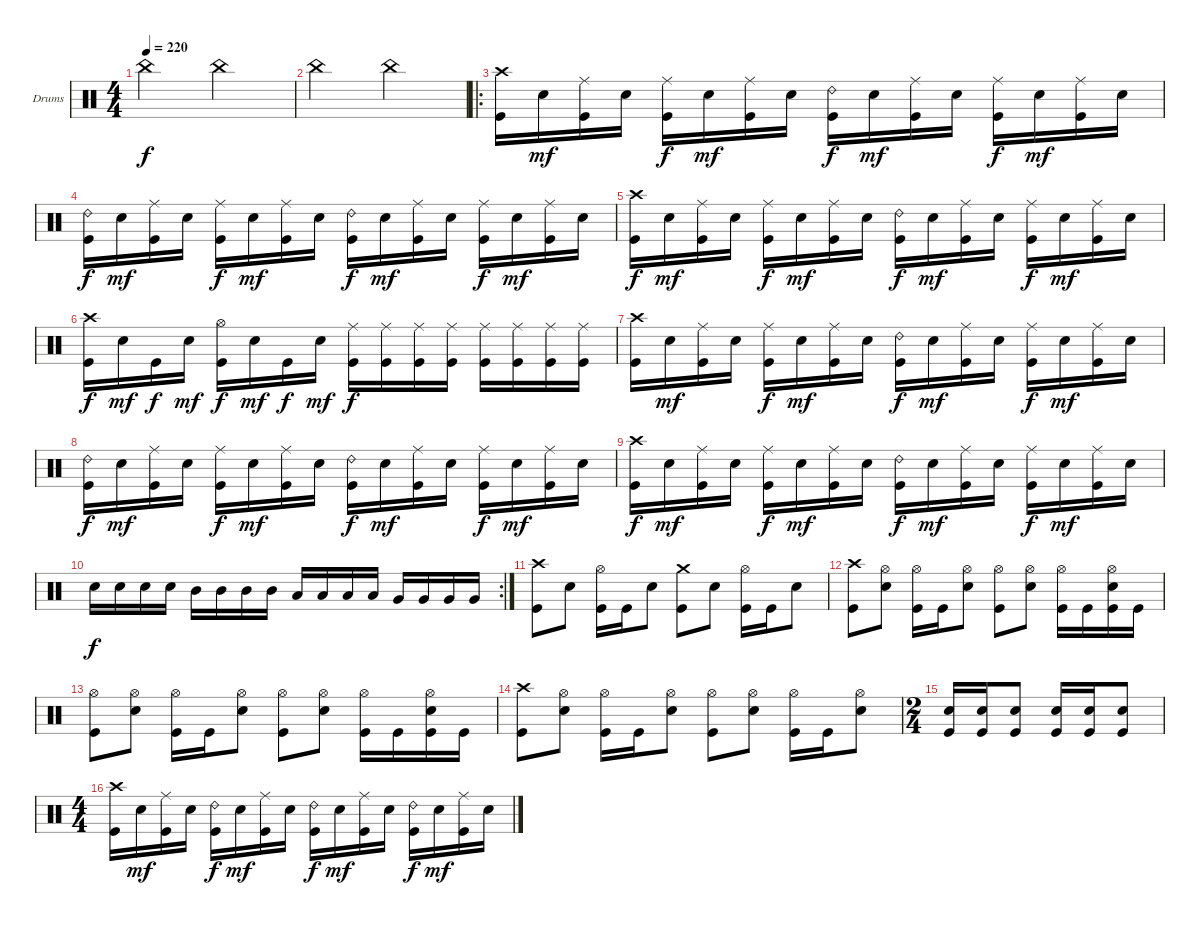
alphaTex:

\defaultSystemsLayout 4
\bracketExtendMode groupsimilarinstruments
\firstSystemTrackNameOrientation horizontal
\otherSystemsTrackNameOrientation horizontal
\track ("Drumkit" "Drums") {instrument percussion}
\staff {score}
\articulation defaults
\ts (4 4)
\tempo 220
\clef neutral
\scale
0.472222
\ks c "China (hit)".2{dy f} "China (hit)".2
|
\scale
0.263889 "China (hit)".2 "China (hit)".2 |
\ro
\scale
0.263889 ("Crash high (hit)" "Kick (hit)").16 "Snare (hit) 2".16{dy mf} ("Ride (middle)" "Kick (hit)").16 "Snare (hit) 2".16 ("Ride (middle)" "Kick (hit)").16{dy f} "Snare (hit) 2".16{dy mf} ("Ride (middle)" "Kick (hit)").16 "Snare (hit) 2".16 ("Ride (bell) 2" "Kick (hit)").16{dy f} "Snare (hit) 2".16{dy mf} ("Ride (middle)" "Kick (hit)").16 "Snare (hit) 2".16 ("Ride (middle)" "Kick (hit)").16{dy f} "Snare (hit) 2".16{dy mf} ("Ride (middle)" "Kick (hit)").16 "Snare (hit) 2".16 |
\scale
0.333333 ("Ride (bell) 2" "Kick (hit)").16{dy f} "Snare (hit) 2".16{dy mf} ("Ride (middle)" "Kick (hit)").16 "Snare (hit) 2".16 ("Ride (middle)" "Kick (hit)").16{dy f} "Snare (hit) 2".16{dy mf} ("Ride (middle)" "Kick (hit)").16 "Snare (hit) 2".16 ("Ride (bell) 2" "Kick (hit)").16{dy f} "Snare (hit) 2".16{dy mf} ("Ride (middle)" "Kick (hit)").16 "Snare (hit) 2".16 ("Ride (middle)" "Kick (hit)").16{dy f} "Snare (hit) 2".16{dy mf} ("Ride (middle)" "Kick (hit)").16 "Snare (hit) 2".16 |
\scale
0.333333 ("Crash high (hit)" "Kick (hit)").16{dy f} "Snare (hit) 2".16{dy mf} ("Ride (middle)" "Kick (hit)").16 "Snare (hit) 2".16 ("Ride (middle)" "Kick (hit)").16{dy f} "Snare (hit) 2".16{dy mf} ("Ride (middle)" "Kick (hit)").16 "Snare (hit) 2".16 ("Ride (bell) 2" "Kick (hit)").16{dy f} "Snare (hit) 2".16{dy mf} ("Ride (middle)" "Kick (hit)").16 "Snare (hit) 2".16 ("Ride (middle)" "Kick (hit)").16{dy f} "Snare (hit) 2".16{dy mf} ("Ride (middle)" "Kick (hit)").16 "Snare (hit) 2".16 |
\scale
0.333333 ("Crash high (hit)" "Kick (hit)").16{dy f} "Snare (hit) 2".16{dy mf} "Kick (hit)".16{dy f} "Snare (hit) 2".16{dy mf} ("Hi-Hat (open)" "Kick (hit)").16{dy f} "Snare (hit) 2".16{dy mf} "Kick (hit)".16{dy f} "Snare (hit) 2".16{dy mf} ("Ride (middle)" "Kick (hit)").16{dy f} ("Ride (middle)" "Kick (hit)").16 ("Ride (middle)" "Kick (hit)").16 ("Ride (middle)" "Kick (hit)").16 ("Ride (middle)" "Kick (hit)").16 ("Ride (middle)" "Kick (hit)").16 ("Ride (middle)" "Kick (hit)").16 ("Ride (middle)" "Kick (hit)").16 |
\scale
0.333333 ("Crash high (hit)" "Kick (hit)").16 "Snare (hit) 2".16{dy mf} ("Ride (middle)" "Kick (hit)").16 "Snare (hit) 2".16 ("Ride (middle)" "Kick (hit)").16{dy f} "Snare (hit) 2".16{dy mf} ("Ride (middle)" "Kick (hit)").16 "Snare (hit) 2".16 ("Ride (bell) 2" "Kick (hit)").16{dy f} "Snare (hit) 2".16{dy mf} ("Ride (middle)" "Kick (hit)").16 "Snare (hit) 2".16 ("Ride (middle)" "Kick (hit)").16{dy f} "Snare (hit) 2".16{dy mf} ("Ride (middle)" "Kick (hit)").16 "Snare (hit) 2".16 |
\scale
0.333333 ("Ride (bell) 2" "Kick (hit)").16{dy f} "Snare (hit) 2".16{dy mf} ("Ride (middle)" "Kick (hit)").16 "Snare (hit) 2".16 ("Ride (middle)" "Kick (hit)").16{dy f} "Snare (hit) 2".16{dy mf} ("Ride (middle)" "Kick (hit)").16 "Snare (hit) 2".16 ("Ride (bell) 2" "Kick (hit)").16{dy f} "Snare (hit) 2".16{dy mf} ("Ride (middle)" "Kick (hit)").16 "Snare (hit) 2".16 ("Ride (middle)" "Kick (hit)").16{dy f} "Snare (hit) 2".16{dy mf} ("Ride (middle)" "Kick (hit)").16 "Snare (hit) 2".16 |
\scale
0.333333 ("Crash high (hit)" "Kick (hit)").16{dy f} "Snare (hit) 2".16{dy mf} ("Ride (middle)" "Kick (hit)").16 "Snare (hit) 2".16 ("Ride (middle)" "Kick (hit)").16{dy f} "Snare (hit) 2".16{dy mf} ("Ride (middle)" "Kick (hit)").16 "Snare (hit) 2".16 ("Ride (bell) 2" "Kick (hit)").16{dy f} "Snare (hit) 2".16{dy mf} ("Ride (middle)" "Kick (hit)").16 "Snare (hit) 2".16 ("Ride (middle)" "Kick (hit)").16{dy f} "Snare (hit) 2".16{dy mf} ("Ride (middle)" "Kick (hit)").16 "Snare (hit) 2".16 |
\rc 2
\scale
0.333333 "Snare (hit) 2".16{dy f} "Snare (hit) 2".16 "Snare (hit) 2".16 "Snare (hit) 2".16 "Mid Tom (hit)".16 "Mid Tom (hit)".16 "Mid Tom (hit)".16 "Mid Tom (hit)".16 "Low Tom (hit)".16 "Low Tom (hit)".16 "Low Tom (hit)".16 "Low Tom (hit)".16 "Very Low Tom (hit)".16 "Very Low Tom (hit)".16 "Very Low Tom (hit)".16 "Very Low Tom (hit)".16 |
\scale
0.333333 ("Crash high (hit)" "Kick (hit)").8 "Snare (hit) 2".8 ("Hi-Hat (open)" "Kick (hit)").16 "Kick (hit)".16 "Snare (hit) 2".8 ("Crash medium (hit)" "Kick (hit)").8 "Snare (hit) 2".8 ("Hi-Hat (open)" "Kick (hit)").16 "Kick (hit)".16 "Snare (hit) 2".8 |
\scale
0.333333 ("Crash high (hit)" "Kick (hit)").8 ("Hi-Hat (open)" "Snare (hit) 2").8 ("Hi-Hat (open)" "Kick (hit)").16 "Kick (hit)".16 ("Hi-Hat (open)" "Snare (hit) 2").8 ("Hi-Hat (open)" "Kick (hit)").8 ("Hi-Hat (open)" "Snare (hit) 2").8 ("Hi-Hat (open)" "Kick (hit)").16 "Kick (hit)".16 ("Hi-Hat (open)" "Snare (hit) 2" "Kick (hit)").16 "Kick (hit)".16 |
\scale
0.333333 ("Hi-Hat (open)" "Kick (hit)").8 ("Hi-Hat (open)" "Snare (hit) 2").8 ("Hi-Hat (open)" "Kick (hit)").16 "Kick (hit)".16 ("Hi-Hat (open)" "Snare (hit) 2").8 ("Hi-Hat (open)" "Kick (hit)").8 ("Hi-Hat (open)" "Snare (hit) 2").8 ("Hi-Hat (open)" "Kick (hit)").16 "Kick (hit)".16 ("Hi-Hat (open)" "Snare (hit) 2" "Kick (hit)").16 "Kick (hit)".16 |
\scale
0.333333 ("Crash high (hit)" "Kick (hit)").8 ("Hi-Hat (open)" "Snare (hit) 2").8 ("Hi-Hat (open)" "Kick (hit)").16 "Kick (hit)".16 ("Hi-Hat (open)" "Snare (hit) 2").8 ("Hi-Hat (open)" "Kick (hit)").8 ("Hi-Hat (open)" "Snare (hit) 2").8 ("Hi-Hat (open)" "Kick (hit)").16 "Kick (hit)".16 ("Hi-Hat (open)" "Snare (hit) 2").8 |
\ts (2 4)
\scale
0.333333 ("Snare (hit) 2" "Kick (hit)").16 ("Snare (hit) 2" "Kick (hit)").16 ("Snare (hit) 2" "Kick (hit)").8 ("Snare (hit) 2" "Kick (hit)").16 ("Snare (hit) 2" "Kick (hit)").16 ("Snare (hit) 2" "Kick (hit)").8 |
\ts (4 4)
\scale
0.333333 ("Crash high (hit)" "Kick (hit)").16 "Snare (hit) 2".16{dy mf} ("Ride (middle)" "Kick (hit)").16 "Snare (hit) 2".16 ("Ride (bell) 2" "Kick (hit)").16{dy f} "Snare (hit) 2".16{dy mf} ("Ride (middle)" "Kick (hit)").16 "Snare (hit) 2".16 ("Ride (bell) 2" "Kick (hit)").16{dy f} "Snare (hit) 2".16{dy mf} ("Ride (middle)" "Kick (hit)").16 "Snare (hit) 2".16 ("Ride (bell) 2" "Kick (hit)").16{dy f} "Snare (hit) 2".16{dy mf} ("Ride (middle)" "Kick (hit)").16 "Snare (hit) 2".16
